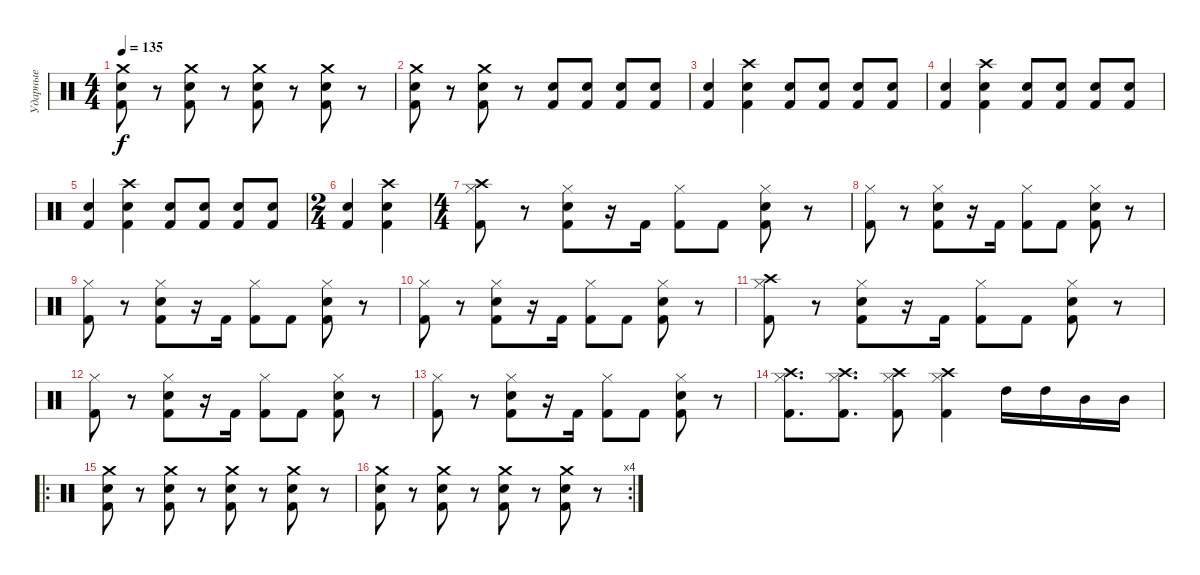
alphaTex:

\track ("Ударные" "Ударные") {instrument percussion}
\staff {score}
\articulation defaults
\ts (4 4)
\tempo 135
\clef neutral
\ks c
("Crash medium (hit)" "Electric Snare (hit)" "Kick (hit) 2").8{dy f} r.8 ("Crash medium (hit)" "Electric Snare (hit)" "Kick (hit) 2").8 r.8 ("Crash medium (hit)" "Electric Snare (hit)" "Kick (hit) 2").8 r.8 ("Crash medium (hit)" "Electric Snare (hit)" "Kick (hit) 2").8 r.8 |
("Crash medium (hit)" "Electric Snare (hit)" "Kick (hit) 2").8 r.8 ("Crash medium (hit)" "Electric Snare (hit)" "Kick (hit) 2").8 r.8 ("Electric Snare (hit)" "Kick (hit) 2").8 ("Electric Snare (hit)" "Kick (hit) 2").8 ("Electric Snare (hit)" "Kick (hit) 2").8 ("Electric Snare (hit)" "Kick (hit) 2").8 |
("Electric Snare (hit)" "Kick (hit) 2").4 ("Crash high (hit)" "Electric Snare (hit)" "Kick (hit) 2").4 ("Electric Snare (hit)" "Kick (hit) 2").8 ("Electric Snare (hit)" "Kick (hit) 2").8 ("Electric Snare (hit)" "Kick (hit) 2").8 ("Electric Snare (hit)" "Kick (hit) 2").8 |
("Electric Snare (hit)" "Kick (hit) 2").4 ("Crash high (hit)" "Electric Snare (hit)" "Kick (hit) 2").4 ("Electric Snare (hit)" "Kick (hit) 2").8 ("Electric Snare (hit)" "Kick (hit) 2").8 ("Electric Snare (hit)" "Kick (hit) 2").8 ("Electric Snare (hit)" "Kick (hit) 2").8 |
("Electric Snare (hit)" "Kick (hit) 2").4 ("Crash high (hit)" "Electric Snare (hit)" "Kick (hit) 2").4 ("Electric Snare (hit)" "Kick (hit) 2").8 ("Electric Snare (hit)" "Kick (hit) 2").8 ("Electric Snare (hit)" "Kick (hit) 2").8 ("Electric Snare (hit)" "Kick (hit) 2").8 |
\ts (2 4)
("Electric Snare (hit)" "Kick (hit) 2").4 ("Crash high (hit)" "Electric Snare (hit)" "Kick (hit) 2").4 |
\ts (4 4)
("Hi-Hat (closed)" "Crash high (hit)" "Kick (hit) 2").8 r.8 ("Hi-Hat (closed)" "Electric Snare (hit)" "Kick (hit) 2").8 r.16 "Kick (hit) 2".16 ("Hi-Hat (closed)" "Kick (hit) 2").8 "Kick (hit) 2".8 ("Hi-Hat (closed)" "Electric Snare (hit)" "Kick (hit) 2").8 r.8 |
("Hi-Hat (closed)" "Kick (hit) 2").8 r.8 ("Hi-Hat (closed)" "Electric Snare (hit)" "Kick (hit) 2").8 r.16 "Kick (hit) 2".16 ("Hi-Hat (closed)" "Kick (hit) 2").8 "Kick (hit) 2".8 ("Hi-Hat (closed)" "Electric Snare (hit)" "Kick (hit) 2").8 r.8 |
("Hi-Hat (closed)" "Kick (hit) 2").8 r.8 ("Hi-Hat (closed)" "Electric Snare (hit)" "Kick (hit) 2").8 r.16 "Kick (hit) 2".16 ("Hi-Hat (closed)" "Kick (hit) 2").8 "Kick (hit) 2".8 ("Hi-Hat (closed)" "Electric Snare (hit)" "Kick (hit) 2").8 r.8 |
("Hi-Hat (closed)" "Kick (hit) 2").8 r.8 ("Hi-Hat (closed)" "Electric Snare (hit)" "Kick (hit) 2").8 r.16 "Kick (hit) 2".16 ("Hi-Hat (closed)" "Kick (hit) 2").8 "Kick (hit) 2".8 ("Hi-Hat (closed)" "Electric Snare (hit)" "Kick (hit) 2").8 r.8 |
("Hi-Hat (closed)" "Crash high (hit)" "Kick (hit) 2").8 r.8 ("Hi-Hat (closed)" "Electric Snare (hit)" "Kick (hit) 2").8 r.16 "Kick (hit) 2".16 ("Hi-Hat (closed)" "Kick (hit) 2").8 "Kick (hit) 2".8 ("Hi-Hat (closed)" "Electric Snare (hit)" "Kick (hit) 2").8 r.8 |
("Hi-Hat (closed)" "Kick (hit) 2").8 r.8 ("Hi-Hat (closed)" "Electric Snare (hit)" "Kick (hit) 2").8 r.16 "Kick (hit) 2".16 ("Hi-Hat (closed)" "Kick (hit) 2").8 "Kick (hit) 2".8 ("Hi-Hat (closed)" "Electric Snare (hit)" "Kick (hit) 2").8 r.8 |
("Hi-Hat (closed)" "Kick (hit) 2").8 r.8 ("Hi-Hat (closed)" "Electric Snare (hit)" "Kick (hit) 2").8 r.16 "Kick (hit) 2".16 ("Hi-Hat (closed)" "Kick (hit) 2").8 "Kick (hit) 2".8 ("Hi-Hat (closed)" "Electric Snare (hit)" "Kick (hit) 2").8 r.8 |
("Hi-Hat (closed)" "Crash high (hit)" "Kick (hit) 2").8{d} ("Hi-Hat (closed)" "Crash high (hit)" "Kick (hit) 2").8{d} ("Hi-Hat (closed)" "Crash high (hit)" "Kick (hit) 2").8 ("Hi-Hat (closed)" "Crash high (hit)" "Kick (hit) 2").4 "High Tom (hit)".16 "High Tom (hit)".16 "Mid Tom (hit)".16 "Mid Tom (hit)".16 |
\ro
("Crash medium (hit)" "Electric Snare (hit)" "Kick (hit) 2").8 r.8 ("Crash medium (hit)" "Electric Snare (hit)" "Kick (hit) 2").8 r.8 ("Crash medium (hit)" "Electric Snare (hit)" "Kick (hit) 2").8 r.8 ("Crash medium (hit)" "Electric Snare (hit)" "Kick (hit) 2").8 r.8 |
\rc 4
("Crash medium (hit)" "Electric Snare (hit)" "Kick (hit) 2").8 r.8 ("Crash medium (hit)" "Electric Snare (hit)" "Kick (hit) 2").8 r.8 ("Crash medium (hit)" "Electric Snare (hit)" "Kick (hit) 2").8 r.8 ("Crash medium (hit)" "Electric Snare (hit)" "Kick (hit) 2").8 r.8
